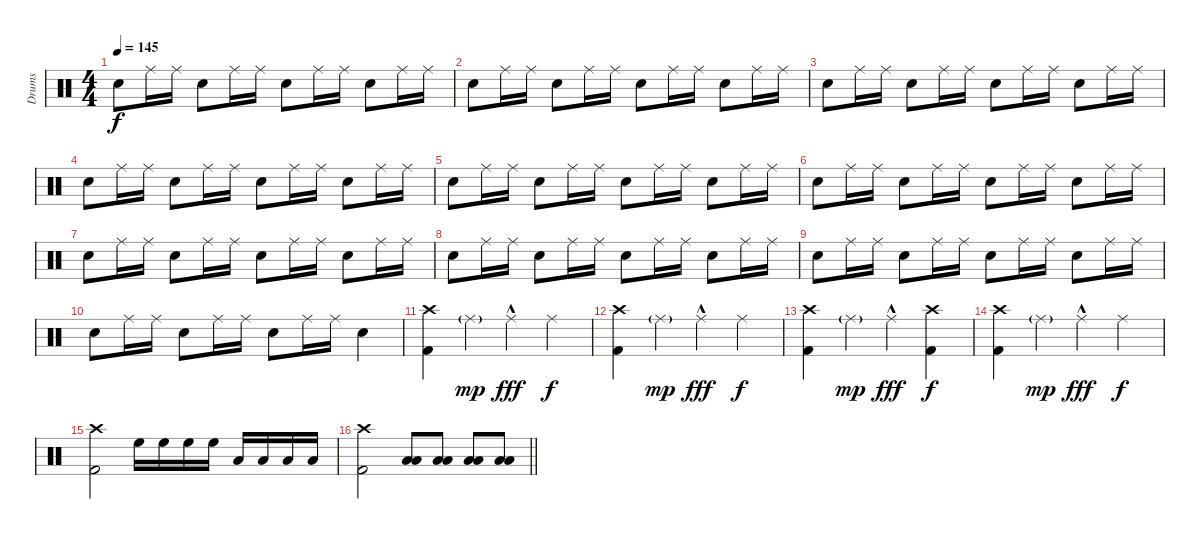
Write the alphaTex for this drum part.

\track ("Drums" "Drums") {instrument percussion}
\staff {score}
\articulation defaults
\ts (4 4)
\tempo 145
\clef neutral
\ks c "Electric Snare (hit)".8{dy f} "Ride (middle)".16 "Ride (middle)".16 "Electric Snare (hit)".8 "Ride (middle)".16 "Ride (middle)".16 "Electric Snare (hit)".8 "Ride (middle)".16 "Ride (middle)".16 "Electric Snare (hit)".8 "Ride (middle)".16 "Ride (middle)".16
|
"Electric Snare (hit)".8 "Ride (middle)".16 "Ride (middle)".16 "Electric Snare (hit)".8 "Ride (middle)".16 "Ride (middle)".16 "Electric Snare (hit)".8 "Ride (middle)".16 "Ride (middle)".16 "Electric Snare (hit)".8 "Ride (middle)".16 "Ride (middle)".16 |
"Electric Snare (hit)".8 "Ride (middle)".16 "Ride (middle)".16 "Electric Snare (hit)".8 "Ride (middle)".16 "Ride (middle)".16 "Electric Snare (hit)".8 "Ride (middle)".16 "Ride (middle)".16 "Electric Snare (hit)".8 "Ride (middle)".16 "Ride (middle)".16 |
"Electric Snare (hit)".8 "Ride (middle)".16 "Ride (middle)".16 "Electric Snare (hit)".8 "Ride (middle)".16 "Ride (middle)".16 "Electric Snare (hit)".8 "Ride (middle)".16 "Ride (middle)".16 "Electric Snare (hit)".8 "Ride (middle)".16 "Ride (middle)".16 |
"Electric Snare (hit)".8 "Ride (middle)".16 "Ride (middle)".16 "Electric Snare (hit)".8 "Ride (middle)".16 "Ride (middle)".16 "Electric Snare (hit)".8 "Ride (middle)".16 "Ride (middle)".16 "Electric Snare (hit)".8 "Ride (middle)".16 "Ride (middle)".16 |
"Electric Snare (hit)".8 "Ride (middle)".16 "Ride (middle)".16 "Electric Snare (hit)".8 "Ride (middle)".16 "Ride (middle)".16 "Electric Snare (hit)".8 "Ride (middle)".16 "Ride (middle)".16 "Electric Snare (hit)".8 "Ride (middle)".16 "Ride (middle)".16 |
"Electric Snare (hit)".8 "Ride (middle)".16 "Ride (middle)".16 "Electric Snare (hit)".8 "Ride (middle)".16 "Ride (middle)".16 "Electric Snare (hit)".8 "Ride (middle)".16 "Ride (middle)".16 "Electric Snare (hit)".8 "Ride (middle)".16 "Ride (middle)".16 |
"Electric Snare (hit)".8 "Ride (middle)".16 "Ride (middle)".16 "Electric Snare (hit)".8 "Ride (middle)".16 "Ride (middle)".16 "Electric Snare (hit)".8 "Ride (middle)".16 "Ride (middle)".16 "Electric Snare (hit)".8 "Ride (middle)".16 "Ride (middle)".16 |
"Electric Snare (hit)".8 "Ride (middle)".16 "Ride (middle)".16 "Electric Snare (hit)".8 "Ride (middle)".16 "Ride (middle)".16 "Electric Snare (hit)".8 "Ride (middle)".16 "Ride (middle)".16 "Electric Snare (hit)".8 "Ride (middle)".16 "Ride (middle)".16 |
"Electric Snare (hit)".8 "Ride (middle)".16 "Ride (middle)".16 "Electric Snare (hit)".8 "Ride (middle)".16 "Ride (middle)".16 "Electric Snare (hit)".8 "Ride (middle)".16 "Ride (middle)".16 "Electric Snare (hit)".4 |
("Crash high (hit)" "Kick (hit) 2").4 "Ride (middle)"{g}.4{dy mp} "Ride (middle)"{hac}.4{dy fff} "Ride (middle)".4{dy f} |
("Crash high (hit)" "Kick (hit) 2").4 "Ride (middle)"{g}.4{dy mp} "Ride (middle)"{hac}.4{dy fff} "Ride (middle)".4{dy f} |
("Crash high (hit)" "Kick (hit) 2").4 "Ride (middle)"{g}.4{dy mp} "Ride (middle)"{hac}.4{dy fff} ("Crash high (hit)" "Kick (hit) 2").4{dy f} |
("Crash high (hit)" "Kick (hit) 2").4 "Ride (middle)"{g}.4{dy mp} "Ride (middle)"{hac}.4{dy fff} "Ride (middle)".4{dy f} |
("Crash high (hit)" "Kick (hit) 2").2 "High Floor Tom (hit)".16 "High Floor Tom (hit)".16 "High Floor Tom (hit)".16 "High Floor Tom (hit)".16 "Low Tom (hit)".16 "Low Tom (hit)".16 "Low Tom (hit)".16 "Low Tom (hit)".16 |
\barLineRight lightlight
("Crash high (hit)" "Kick (hit) 2").2 ("Low Tom (hit)" "Low Tom (hit)").8 ("Low Tom (hit)" "Low Tom (hit)").8 ("Low Tom (hit)" "Low Tom (hit)").8 ("Low Tom (hit)" "Low Tom (hit)").8
